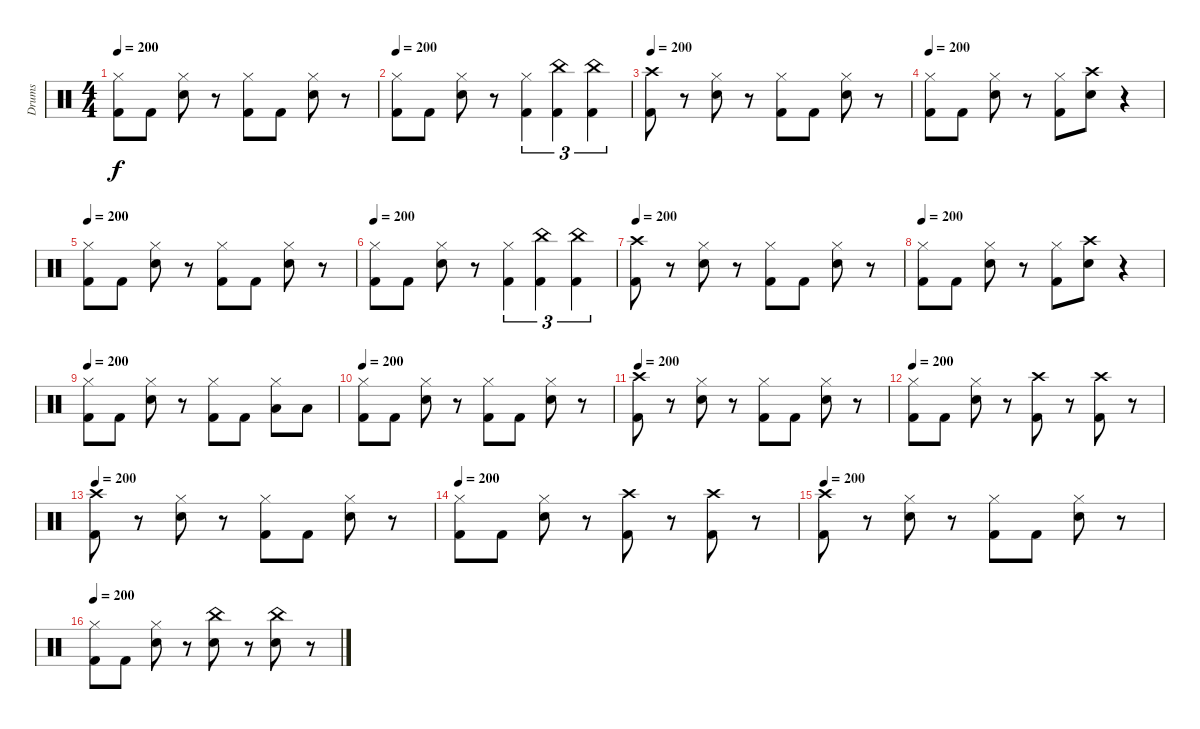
\track ("Drums" "Drums") {instrument percussion}
\staff {score}
\articulation defaults
\ts (4 4)
\tempo 200
\clef neutral
\ks c
("Kick (hit) 2" "Hi-Hat (closed)").8{dy f} "Kick (hit) 2".8 ("Snare (hit) 2" "Hi-Hat (closed)").8 r.8 ("Kick (hit) 2" "Hi-Hat (closed)").8 "Kick (hit) 2".8 ("Snare (hit) 2" "Hi-Hat (closed)").8 r.8 |
\tempo 200
("Kick (hit) 2" "Hi-Hat (closed)").8 "Kick (hit) 2".8 ("Snare (hit) 2" "Hi-Hat (closed)").8 r.8 ("Hi-Hat (closed)" "Kick (hit) 2").4{tu (3 2)} ("China (hit)" "Kick (hit) 2").4{tu (3 2)} ("China (hit)" "Kick (hit) 2").4{tu (3 2)} |
\tempo 200
("Kick (hit) 2" "Crash high (hit)").8 r.8 ("Hi-Hat (closed)" "Snare (hit) 2").8 r.8 ("Hi-Hat (closed)" "Kick (hit) 2").8 "Kick (hit) 2".8 ("Hi-Hat (closed)" "Snare (hit) 2").8 r.8 |
\tempo 200
("Kick (hit) 2" "Hi-Hat (closed)").8 "Kick (hit) 2".8 ("Snare (hit) 2" "Hi-Hat (closed)").8 r.8 ("Hi-Hat (closed)" "Kick (hit) 2").8 ("Crash high (hit)" "Snare (hit) 2").8 r.4 |
\tempo 200
("Kick (hit) 2" "Hi-Hat (closed)").8 "Kick (hit) 2".8 ("Snare (hit) 2" "Hi-Hat (closed)").8 r.8 ("Kick (hit) 2" "Hi-Hat (closed)").8 "Kick (hit) 2".8 ("Snare (hit) 2" "Hi-Hat (closed)").8 r.8 |
\tempo 200
("Kick (hit) 2" "Hi-Hat (closed)").8 "Kick (hit) 2".8 ("Snare (hit) 2" "Hi-Hat (closed)").8 r.8 ("Hi-Hat (closed)" "Kick (hit) 2").4{tu (3 2)} ("China (hit)" "Kick (hit) 2").4{tu (3 2)} ("China (hit)" "Kick (hit) 2").4{tu (3 2)} |
\tempo 200
("Kick (hit) 2" "Crash high (hit)").8 r.8 ("Hi-Hat (closed)" "Snare (hit) 2").8 r.8 ("Hi-Hat (closed)" "Kick (hit) 2").8 "Kick (hit) 2".8 ("Hi-Hat (closed)" "Snare (hit) 2").8 r.8 |
\tempo 200
("Kick (hit) 2" "Hi-Hat (closed)").8 "Kick (hit) 2".8 ("Snare (hit) 2" "Hi-Hat (closed)").8 r.8 ("Hi-Hat (closed)" "Kick (hit) 2").8 ("Crash high (hit)" "Snare (hit) 2").8 r.4 |
\tempo 200
("Hi-Hat (closed)" "Kick (hit) 2").8 "Kick (hit) 2".8 ("Snare (hit) 2" "Hi-Hat (closed)").8 r.8 ("Hi-Hat (closed)" "Kick (hit) 2").8 "Kick (hit) 2".8 ("Low Tom (hit)" "Hi-Hat (closed)").8 "Low Tom (hit)".8 |
\tempo 200
("Hi-Hat (closed)" "Kick (hit) 2").8 "Kick (hit) 2".8 ("Hi-Hat (closed)" "Snare (hit) 2").8 r.8 ("Hi-Hat (closed)" "Kick (hit) 2").8 "Kick (hit) 2".8 ("Hi-Hat (closed)" "Snare (hit) 2").8 r.8 |
\tempo 200
("Kick (hit) 2" "Crash high (hit)").8 r.8 ("Hi-Hat (closed)" "Snare (hit) 2").8 r.8 ("Hi-Hat (closed)" "Kick (hit) 2").8 "Kick (hit) 2".8 ("Hi-Hat (closed)" "Snare (hit) 2").8 r.8 |
\tempo 200
("Hi-Hat (closed)" "Kick (hit) 2").8 "Kick (hit) 2".8 ("Snare (hit) 2" "Hi-Hat (closed)").8 r.8 ("Crash high (hit)" "Kick (hit) 2").8 r.8 ("Crash high (hit)" "Kick (hit) 2").8 r.8 |
\tempo 200
("Kick (hit) 2" "Crash high (hit)").8 r.8 ("Hi-Hat (closed)" "Snare (hit) 2").8 r.8 ("Kick (hit) 2" "Hi-Hat (closed)").8 "Kick (hit) 2".8 ("Snare (hit) 2" "Hi-Hat (closed)").8 r.8 |
\tempo 200
("Hi-Hat (closed)" "Kick (hit) 2").8 "Kick (hit) 2".8 ("Snare (hit) 2" "Hi-Hat (closed)").8 r.8 ("Crash high (hit)" "Kick (hit) 2").8 r.8 ("Crash high (hit)" "Kick (hit) 2").8 r.8 |
\tempo 200
("Kick (hit) 2" "Crash high (hit)").8 r.8 ("Hi-Hat (closed)" "Snare (hit) 2").8 r.8 ("Kick (hit) 2" "Hi-Hat (closed)").8 "Kick (hit) 2".8 ("Snare (hit) 2" "Hi-Hat (closed)").8 r.8 |
\tempo 200
("Kick (hit) 2" "Hi-Hat (closed)").8 "Kick (hit) 2".8 ("Snare (hit) 2" "Hi-Hat (closed)").8 r.8 ("China (hit)" "Snare (hit) 2").8 r.8 ("China (hit)" "Snare (hit) 2").8 r.8
